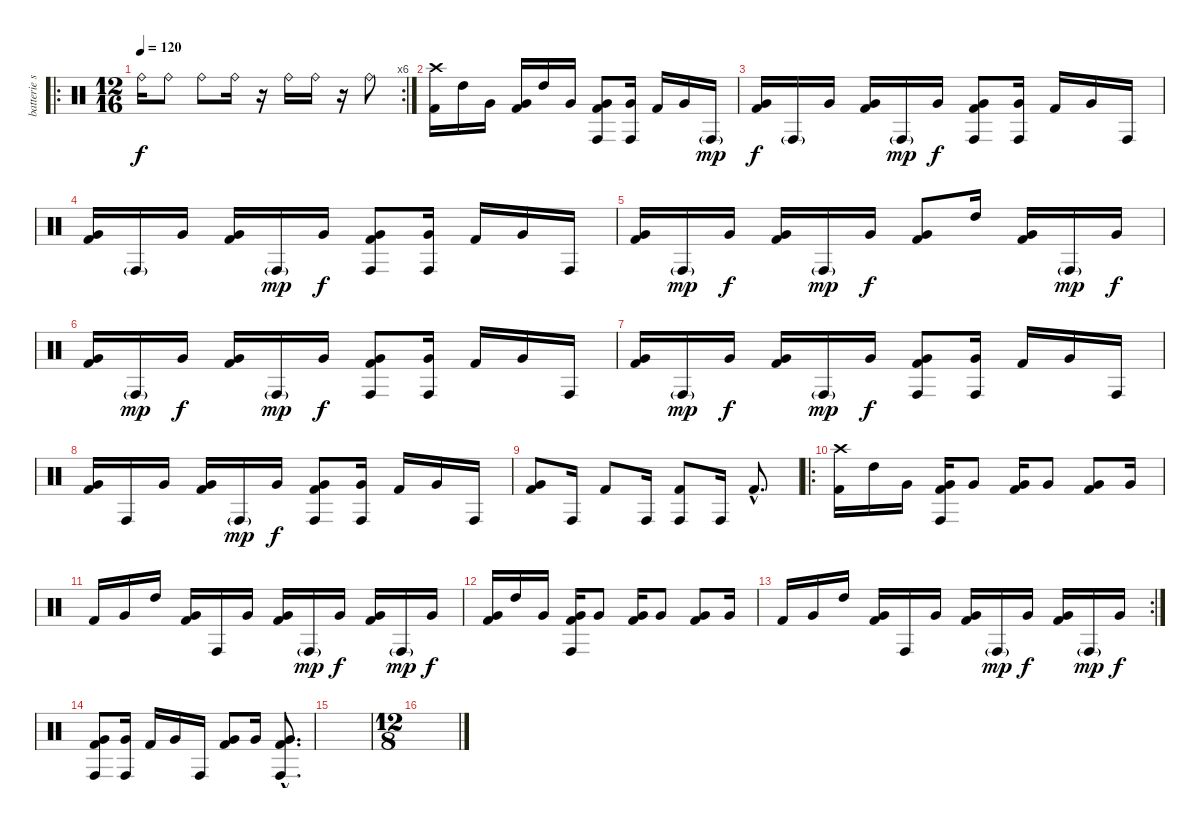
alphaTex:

\track ("batterie sur toms" "batterie s") {instrument percussion}
\staff {score}
\articulation defaults
\ro
\rc 6
\ts (12 16)
\tempo 120
\clef neutral
\ks c "Ride (bell)".16{dy f} "Ride (bell)".8 "Ride (bell)".8 "Ride (bell)".16
r.16 "Ride (bell)".16 "Ride (bell)".16 r.16 "Ride (bell)".8 |
("Crash high (hit)" "Kick (hit) 2").16 "High Tom (hit)".16 "Very Low Tom (hit)".16 ("Very Low Tom (hit)" "Kick (hit) 2").16 "High Tom (hit)".16 "Very Low Tom (hit)".16 ("Conga high (hit)" "Very Low Tom (hit)" "Kick (hit) 2").8 ("Conga high (hit)" "Very Low Tom (hit)").16 "Kick (hit) 2".16 "Very Low Tom (hit)".16 "Conga high (hit)"{g}.16{dy mp} |
("Very Low Tom (hit)" "Kick (hit) 2").16{dy f} "Conga high (hit)"{g}.16 "Very Low Tom (hit)".16 ("Very Low Tom (hit)" "Kick (hit) 2").16 "Conga high (hit)"{g}.16{dy mp} "Very Low Tom (hit)".16{dy f} ("Conga high (hit)" "Very Low Tom (hit)" "Kick (hit) 2").8 ("Conga high (hit)" "Very Low Tom (hit)").16 "Kick (hit) 2".16 "Very Low Tom (hit)".16 "Conga high (hit)".16 |
("Very Low Tom (hit)" "Kick (hit) 2").16 "Conga high (hit)"{g}.16 "Very Low Tom (hit)".16 ("Very Low Tom (hit)" "Kick (hit) 2").16 "Conga high (hit)"{g}.16{dy mp} "Very Low Tom (hit)".16{dy f} ("Conga high (hit)" "Very Low Tom (hit)" "Kick (hit) 2").8 ("Conga high (hit)" "Very Low Tom (hit)").16 "Kick (hit) 2".16 "Very Low Tom (hit)".16 "Conga high (hit)".16 |
("Very Low Tom (hit)" "Kick (hit) 2").16 "Conga high (hit)"{g}.16{dy mp} "Very Low Tom (hit)".16{dy f} ("Very Low Tom (hit)" "Kick (hit) 2").16 "Conga high (hit)"{g}.16{dy mp} "Very Low Tom (hit)".16{dy f} ("Very Low Tom (hit)" "Kick (hit) 2").8 "High Tom (hit)".16 ("Very Low Tom (hit)" "Kick (hit) 2").16 "Conga high (hit)"{g}.16{dy mp} "Very Low Tom (hit)".16{dy f} |
("Very Low Tom (hit)" "Kick (hit) 2").16 "Conga high (hit)"{g}.16{dy mp} "Very Low Tom (hit)".16{dy f} ("Very Low Tom (hit)" "Kick (hit) 2").16 "Conga high (hit)"{g}.16{dy mp} "Very Low Tom (hit)".16{dy f} ("Conga high (hit)" "Very Low Tom (hit)" "Kick (hit) 2").8 ("Conga high (hit)" "Very Low Tom (hit)").16 "Kick (hit) 2".16 "Very Low Tom (hit)".16 "Conga high (hit)".16 |
("Very Low Tom (hit)" "Kick (hit) 2").16 "Conga high (hit)"{g}.16{dy mp} "Very Low Tom (hit)".16{dy f} ("Very Low Tom (hit)" "Kick (hit) 2").16 "Conga high (hit)"{g}.16{dy mp} "Very Low Tom (hit)".16{dy f} ("Conga high (hit)" "Very Low Tom (hit)" "Kick (hit) 2").8 ("Conga high (hit)" "Very Low Tom (hit)").16 "Kick (hit) 2".16 "Very Low Tom (hit)".16 "Conga high (hit)".16 |
("Very Low Tom (hit)" "Kick (hit) 2").16 "Conga high (hit)".16 "Very Low Tom (hit)".16 ("Very Low Tom (hit)" "Kick (hit) 2").16 "Conga high (hit)"{g}.16{dy mp} "Very Low Tom (hit)".16{dy f} ("Conga high (hit)" "Very Low Tom (hit)" "Kick (hit) 2").8 ("Conga high (hit)" "Very Low Tom (hit)").16 "Kick (hit) 2".16 "Very Low Tom (hit)".16 "Conga high (hit)".16 |
("Very Low Tom (hit)" "Kick (hit) 2").8 "Conga high (hit)".16 "Kick (hit) 2".8 "Conga high (hit)".16 ("Conga high (hit)" "Kick (hit) 2").8 "Conga high (hit)".16 "Kick (hit) 2"{hac}.8{d} |
\ro
("Crash high (hit)" "Kick (hit) 2").16 "High Tom (hit)".16 "Very Low Tom (hit)".16 ("Conga high (hit)" "Very Low Tom (hit)" "Kick (hit) 2").16 "Very Low Tom (hit)".8 ("Very Low Tom (hit)" "Kick (hit) 2").16 "Very Low Tom (hit)".8 ("Very Low Tom (hit)" "Kick (hit) 2").8 "Very Low Tom (hit)".16 |
"Kick (hit) 2".16 "Very Low Tom (hit)".16 "High Tom (hit)".16 ("Very Low Tom (hit)" "Kick (hit) 2").16 "Conga high (hit)".16 "Very Low Tom (hit)".16 ("Very Low Tom (hit)" "Kick (hit) 2").16 "Conga high (hit)"{g}.16{dy mp} "Very Low Tom (hit)".16{dy f} ("Very Low Tom (hit)" "Kick (hit) 2").16 "Conga high (hit)"{g}.16{dy mp} "Very Low Tom (hit)".16{dy f} |
("Very Low Tom (hit)" "Kick (hit) 2").16 "High Tom (hit)".16 "Very Low Tom (hit)".16 ("Conga high (hit)" "Very Low Tom (hit)" "Kick (hit) 2").16 "Very Low Tom (hit)".8 ("Very Low Tom (hit)" "Kick (hit) 2").16 "Very Low Tom (hit)".8 ("Very Low Tom (hit)" "Kick (hit) 2").8 "Very Low Tom (hit)".16 |
\rc 2 "Kick (hit) 2".16 "Very Low Tom (hit)".16 "High Tom (hit)".16
("Very Low Tom (hit)" "Kick (hit) 2").16 "Conga high (hit)".16 "Very Low Tom (hit)".16 ("Very Low Tom (hit)" "Kick (hit) 2").16 "Conga high (hit)"{g}.16{dy mp} "Very Low Tom (hit)".16{dy f} ("Very Low Tom (hit)" "Kick (hit) 2").16 "Conga high (hit)"{g}.16{dy mp} "Very Low Tom (hit)".16{dy f} |
("Conga high (hit)" "Very Low Tom (hit)" "Kick (hit) 2").8 ("Conga high (hit)" "Very Low Tom (hit)").16 "Kick (hit) 2".16 "Very Low Tom (hit)".16 "Conga high (hit)".16 ("Very Low Tom (hit)" "Kick (hit) 2").8 "Very Low Tom (hit)".16 ("Conga high (hit)"{hac} "Very Low Tom (hit)"{hac} "Kick (hit) 2"{hac}).8{d} |
|
\ts (12 8)
